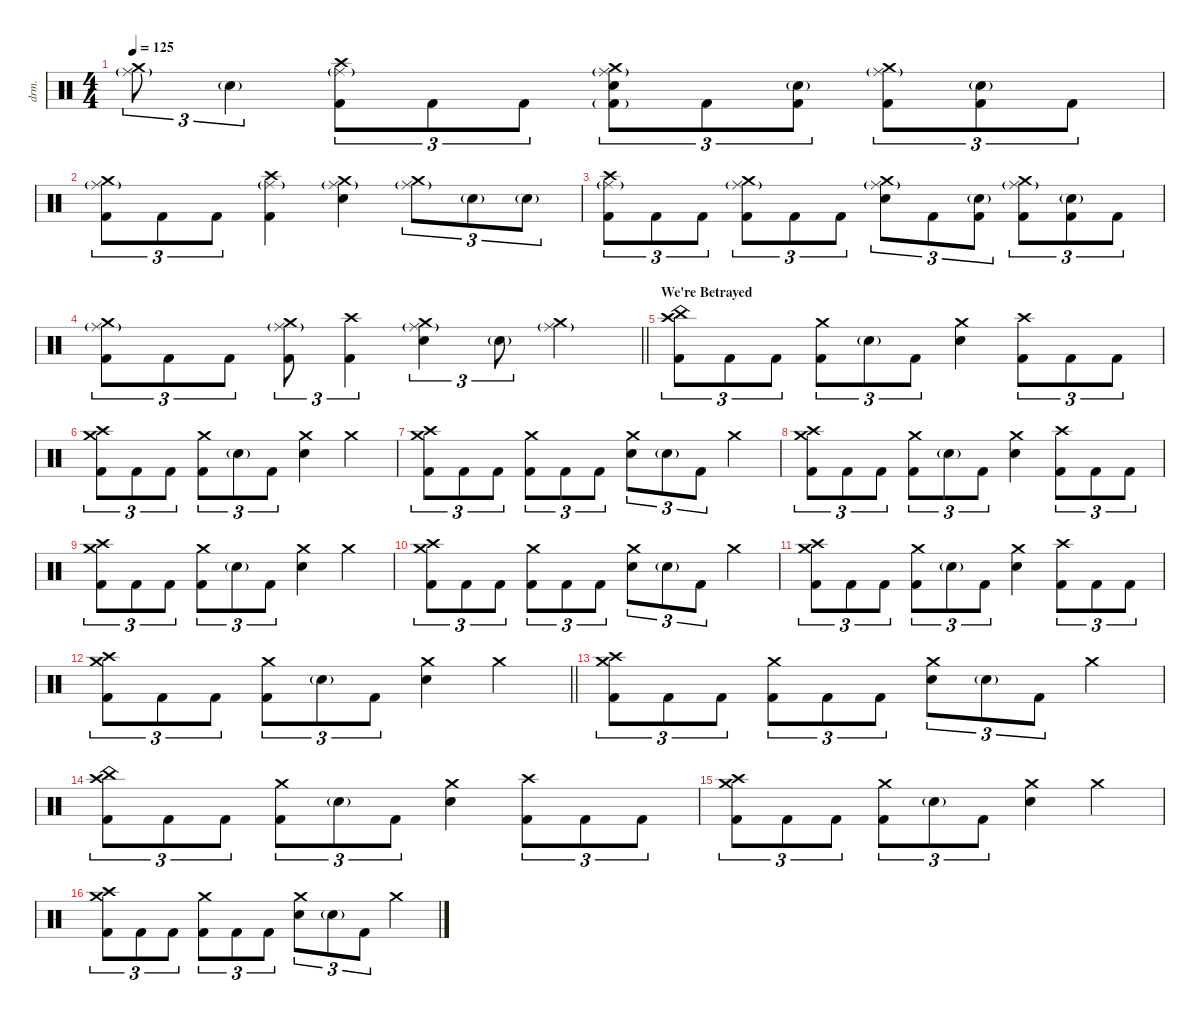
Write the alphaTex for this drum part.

\defaultSystemsLayout 4
\hideDynamics
\bracketExtendMode nobrackets
\track ("DRUMS (Thomas Haake)" "drm.") {instrument percussion}
\staff {score}
\articulation defaults
\ts (4 4)
\tempo 125
\clef neutral
\ks c
("Crash medium (hit)" "Ride (middle)"{g}).8{tu (3 2) dy mf} "Snare (hit) 2"{g}.4{tu (3 2) dy p} ("Crash high (hit)" "Ride (middle)"{g} "Kick (hit) 2").8{tu (3 2) dy mf} "Kick (hit) 2".8{tu (3 2) dy f} "Kick (hit) 2".8{tu (3 2)} ("Crash medium (hit)" "Ride (middle)"{g} "Snare (hit) 2" "Kick (hit) 2"{g}).8{tu (3 2) dy mf} "Kick (hit) 2".8{tu (3 2) dy f} ("Snare (hit) 2"{g} "Kick (hit) 2").8{tu (3 2)} ("Crash medium (hit)" "Ride (middle)"{g} "Kick (hit) 2").8{tu (3 2) dy mf} ("Snare (hit) 2"{g} "Kick (hit) 2").8{tu (3 2) dy f} "Kick (hit) 2".8{tu (3 2)} |
("Crash medium (hit)" "Ride (middle)"{g} "Kick (hit) 2").8{tu (3 2) dy mf} "Kick (hit) 2".8{tu (3 2) dy f} "Kick (hit) 2".8{tu (3 2)} ("Crash high (hit)" "Ride (middle)"{g} "Kick (hit) 2").4{dy mf} ("Crash medium (hit)" "Ride (middle)"{g} "Snare (hit) 2").4 ("Crash medium (hit)" "Ride (middle)"{g}).8{tu (3 2)} "Snare (hit) 2"{g}.8{tu (3 2) dy p} "Snare (hit) 2"{g}.8{tu (3 2)} |
("Crash high (hit)" "Ride (middle)"{g} "Kick (hit) 2").8{tu (3 2) dy mf} "Kick (hit) 2".8{tu (3 2) dy f} "Kick (hit) 2".8{tu (3 2)} ("Crash medium (hit)" "Ride (middle)"{g} "Kick (hit) 2").8{tu (3 2) dy mf} "Kick (hit) 2".8{tu (3 2) dy f} "Kick (hit) 2".8{tu (3 2)} ("Crash medium (hit)" "Ride (middle)"{g} "Snare (hit) 2").8{tu (3 2) dy mf} "Kick (hit) 2".8{tu (3 2) dy f} ("Snare (hit) 2"{g} "Kick (hit) 2").8{tu (3 2)} ("Crash medium (hit)" "Ride (middle)"{g} "Kick (hit) 2").8{tu (3 2) dy mf} ("Snare (hit) 2"{g} "Kick (hit) 2").8{tu (3 2) dy f} "Kick (hit) 2".8{tu (3 2)} |
\barLineRight lightlight
("Crash medium (hit)" "Ride (middle)"{g} "Kick (hit) 2").8{tu (3 2) dy mf} "Kick (hit) 2".8{tu (3 2) dy f} "Kick (hit) 2".8{tu (3 2)} ("Crash medium (hit)" "Ride (middle)"{g} "Kick (hit) 2").8{tu (3 2) dy mf} ("Crash high (hit)" "Kick (hit) 2").4{tu (3 2)} ("Crash medium (hit)" "Ride (middle)"{g} "Snare (hit) 2").4{tu (3 2)} "Snare (hit) 2"{g}.8{tu (3 2) dy p} ("Crash medium (hit)" "Ride (middle)"{g}).4{dy mf} |
\section ("" "We're Betrayed")
("China (hit)" "Crash high (hit)" "Kick (hit) 2").8{tu (3 2)} "Kick (hit) 2".8{tu (3 2) dy f} "Kick (hit) 2".8{tu (3 2)} ("Crash medium (hit)" "Kick (hit) 2").8{tu (3 2) dy mf} "Snare (hit) 2"{g}.8{tu (3 2) dy p} "Kick (hit) 2".8{tu (3 2) dy f} ("Crash medium (hit)" "Snare (hit) 2").4{dy mf} ("Crash high (hit)" "Kick (hit) 2").8{tu (3 2) dy f} "Kick (hit) 2".8{tu (3 2)} "Kick (hit) 2".8{tu (3 2)} |
("Crash medium (hit)" "Crash high (hit)" "Kick (hit) 2").8{tu (3 2) dy mf} "Kick (hit) 2".8{tu (3 2) dy f} "Kick (hit) 2".8{tu (3 2)} ("Crash medium (hit)" "Kick (hit) 2").8{tu (3 2) dy mf} "Snare (hit) 2"{g}.8{tu (3 2) dy p} "Kick (hit) 2".8{tu (3 2) dy f} ("Crash medium (hit)" "Snare (hit) 2").4{dy mf} "Crash medium (hit)".4 |
("Crash medium (hit)" "Crash high (hit)" "Kick (hit) 2").8{tu (3 2)} "Kick (hit) 2".8{tu (3 2) dy f} "Kick (hit) 2".8{tu (3 2)} ("Crash medium (hit)" "Kick (hit) 2").8{tu (3 2) dy mf} "Kick (hit) 2".8{tu (3 2) dy f} "Kick (hit) 2".8{tu (3 2)} ("Crash medium (hit)" "Snare (hit) 2").8{tu (3 2) dy mf} "Snare (hit) 2"{g}.8{tu (3 2) dy mp} "Kick (hit) 2".8{tu (3 2) dy f} "Crash medium (hit)".4{dy mf} |
("Crash medium (hit)" "Crash high (hit)" "Kick (hit) 2").8{tu (3 2)} "Kick (hit) 2".8{tu (3 2) dy f} "Kick (hit) 2".8{tu (3 2)} ("Crash medium (hit)" "Kick (hit) 2").8{tu (3 2) dy mf} "Snare (hit) 2"{g}.8{tu (3 2) dy p} "Kick (hit) 2".8{tu (3 2) dy f} ("Crash medium (hit)" "Snare (hit) 2").4{dy mf} ("Crash high (hit)" "Kick (hit) 2").8{tu (3 2) dy f} "Kick (hit) 2".8{tu (3 2)} "Kick (hit) 2".8{tu (3 2)} |
("Crash medium (hit)" "Crash high (hit)" "Kick (hit) 2").8{tu (3 2) dy mf} "Kick (hit) 2".8{tu (3 2) dy f} "Kick (hit) 2".8{tu (3 2)} ("Crash medium (hit)" "Kick (hit) 2").8{tu (3 2) dy mf} "Snare (hit) 2"{g}.8{tu (3 2) dy p} "Kick (hit) 2".8{tu (3 2) dy f} ("Crash medium (hit)" "Snare (hit) 2").4{dy mf} "Crash medium (hit)".4 |
("Crash medium (hit)" "Crash high (hit)" "Kick (hit) 2").8{tu (3 2)} "Kick (hit) 2".8{tu (3 2) dy f} "Kick (hit) 2".8{tu (3 2)} ("Crash medium (hit)" "Kick (hit) 2").8{tu (3 2) dy mf} "Kick (hit) 2".8{tu (3 2) dy f} "Kick (hit) 2".8{tu (3 2)} ("Crash medium (hit)" "Snare (hit) 2").8{tu (3 2) dy mf} "Snare (hit) 2"{g}.8{tu (3 2) dy mp} "Kick (hit) 2".8{tu (3 2) dy f} "Crash medium (hit)".4{dy mf} |
("Crash medium (hit)" "Crash high (hit)" "Kick (hit) 2").8{tu (3 2)} "Kick (hit) 2".8{tu (3 2) dy f} "Kick (hit) 2".8{tu (3 2)} ("Crash medium (hit)" "Kick (hit) 2").8{tu (3 2) dy mf} "Snare (hit) 2"{g}.8{tu (3 2) dy p} "Kick (hit) 2".8{tu (3 2) dy f} ("Crash medium (hit)" "Snare (hit) 2").4{dy mf} ("Crash high (hit)" "Kick (hit) 2").8{tu (3 2) dy f} "Kick (hit) 2".8{tu (3 2)} "Kick (hit) 2".8{tu (3 2)} |
\barLineRight lightlight
("Crash medium (hit)" "Crash high (hit)" "Kick (hit) 2").8{tu (3 2) dy mf} "Kick (hit) 2".8{tu (3 2) dy f} "Kick (hit) 2".8{tu (3 2)} ("Crash medium (hit)" "Kick (hit) 2").8{tu (3 2) dy mf} "Snare (hit) 2"{g}.8{tu (3 2) dy p} "Kick (hit) 2".8{tu (3 2) dy f} ("Crash medium (hit)" "Snare (hit) 2").4{dy mf} "Crash medium (hit)".4 |
("Crash medium (hit)" "Crash high (hit)" "Kick (hit) 2").8{tu (3 2)} "Kick (hit) 2".8{tu (3 2) dy f} "Kick (hit) 2".8{tu (3 2)} ("Crash medium (hit)" "Kick (hit) 2").8{tu (3 2) dy mf} "Kick (hit) 2".8{tu (3 2) dy f} "Kick (hit) 2".8{tu (3 2)} ("Crash medium (hit)" "Snare (hit) 2").8{tu (3 2) dy mf} "Snare (hit) 2"{g}.8{tu (3 2) dy mp} "Kick (hit) 2".8{tu (3 2) dy f} "Crash medium (hit)".4{dy mf} |
("China (hit)" "Crash high (hit)" "Kick (hit) 2").8{tu (3 2)} "Kick (hit) 2".8{tu (3 2) dy f} "Kick (hit) 2".8{tu (3 2)} ("Crash medium (hit)" "Kick (hit) 2").8{tu (3 2) dy mf} "Snare (hit) 2"{g}.8{tu (3 2) dy p} "Kick (hit) 2".8{tu (3 2) dy f} ("Crash medium (hit)" "Snare (hit) 2").4{dy mf} ("Crash high (hit)" "Kick (hit) 2").8{tu (3 2) dy f} "Kick (hit) 2".8{tu (3 2)} "Kick (hit) 2".8{tu (3 2)} |
("Crash medium (hit)" "Crash high (hit)" "Kick (hit) 2").8{tu (3 2) dy mf} "Kick (hit) 2".8{tu (3 2) dy f} "Kick (hit) 2".8{tu (3 2)} ("Crash medium (hit)" "Kick (hit) 2").8{tu (3 2) dy mf} "Snare (hit) 2"{g}.8{tu (3 2) dy p} "Kick (hit) 2".8{tu (3 2) dy f} ("Crash medium (hit)" "Snare (hit) 2").4{dy mf} "Crash medium (hit)".4 |
("Crash medium (hit)" "Crash high (hit)" "Kick (hit) 2").8{tu (3 2)} "Kick (hit) 2".8{tu (3 2) dy f} "Kick (hit) 2".8{tu (3 2)} ("Crash medium (hit)" "Kick (hit) 2").8{tu (3 2) dy mf} "Kick (hit) 2".8{tu (3 2) dy f} "Kick (hit) 2".8{tu (3 2)} ("Crash medium (hit)" "Snare (hit) 2").8{tu (3 2) dy mf} "Snare (hit) 2"{g}.8{tu (3 2) dy mp} "Kick (hit) 2".8{tu (3 2) dy f} "Crash medium (hit)".4{dy mf}
